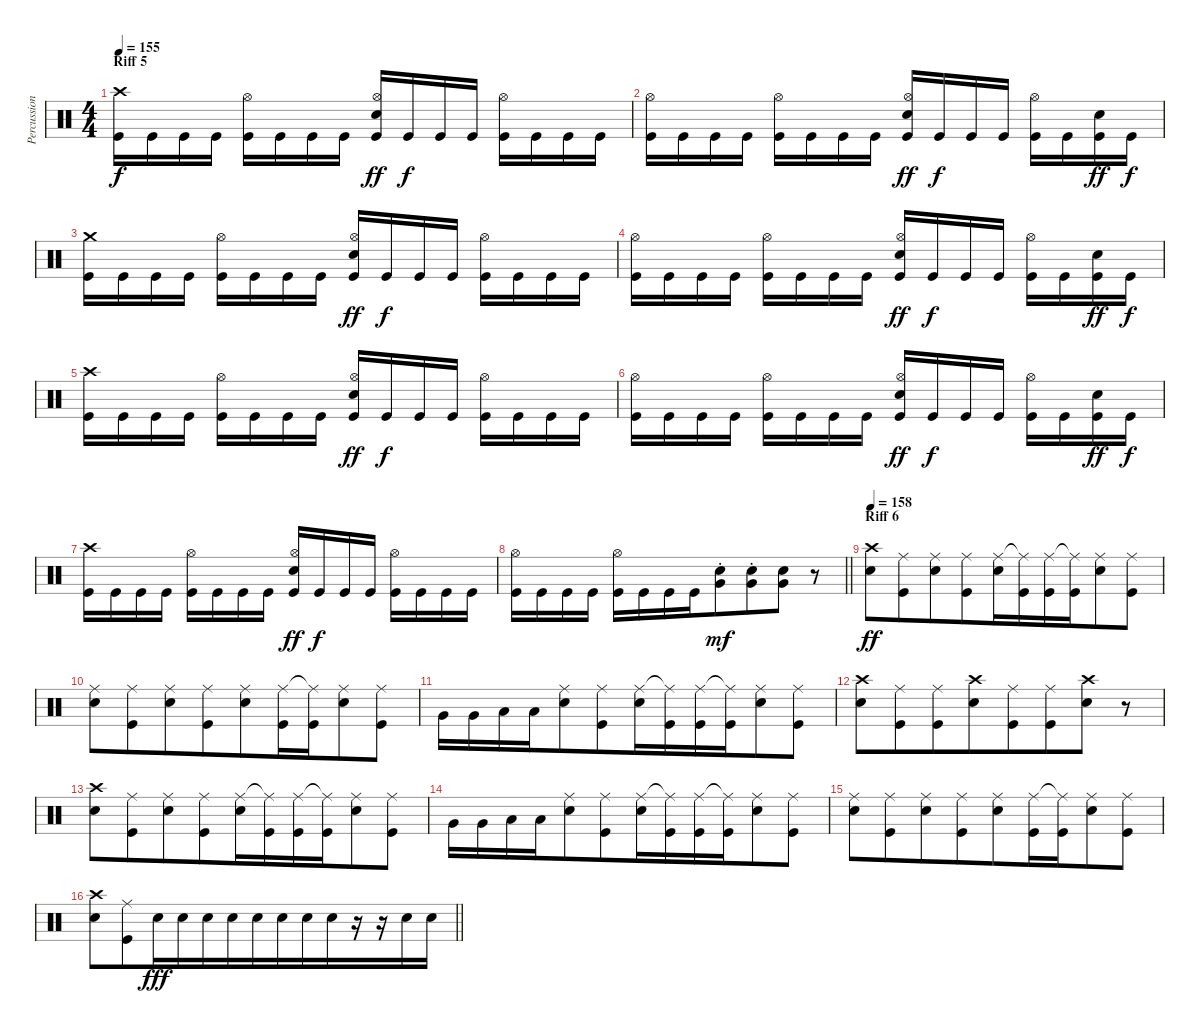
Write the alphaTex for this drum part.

\track ("Percussions" "Percussion") {instrument percussion}
\staff {score}
\articulation defaults
\ts (4 4)
\section ("" "Riff 5")
\tempo 155
\clef neutral
\ks c
("Crash high (hit)" "Kick (hit)").16{dy f} "Kick (hit)".16 "Kick (hit)".16 "Kick (hit)".16 ("Hi-Hat (open)" "Kick (hit)").16 "Kick (hit)".16 "Kick (hit)".16 "Kick (hit)".16 ("Hi-Hat (open)" "Electric Snare (hit)" "Kick (hit)").16{dy ff} "Kick (hit)".16{dy f} "Kick (hit)".16 "Kick (hit)".16 ("Hi-Hat (open)" "Kick (hit)").16 "Kick (hit)".16 "Kick (hit)".16 "Kick (hit)".16 |
("Hi-Hat (open)" "Kick (hit)").16 "Kick (hit)".16 "Kick (hit)".16 "Kick (hit)".16 ("Hi-Hat (open)" "Kick (hit)").16 "Kick (hit)".16 "Kick (hit)".16 "Kick (hit)".16 ("Hi-Hat (open)" "Electric Snare (hit)" "Kick (hit)").16{dy ff} "Kick (hit)".16{dy f} "Kick (hit)".16 "Kick (hit)".16 ("Hi-Hat (open)" "Kick (hit)").16 "Kick (hit)".16 ("Electric Snare (hit)" "Kick (hit)").16{dy ff} "Kick (hit)".16{dy f} |
("Crash medium (hit)" "Kick (hit)").16 "Kick (hit)".16 "Kick (hit)".16 "Kick (hit)".16 ("Hi-Hat (open)" "Kick (hit)").16 "Kick (hit)".16 "Kick (hit)".16 "Kick (hit)".16 ("Hi-Hat (open)" "Electric Snare (hit)" "Kick (hit)").16{dy ff} "Kick (hit)".16{dy f} "Kick (hit)".16 "Kick (hit)".16 ("Hi-Hat (open)" "Kick (hit)").16 "Kick (hit)".16 "Kick (hit)".16 "Kick (hit)".16 |
("Hi-Hat (open)" "Kick (hit)").16 "Kick (hit)".16 "Kick (hit)".16 "Kick (hit)".16 ("Hi-Hat (open)" "Kick (hit)").16 "Kick (hit)".16 "Kick (hit)".16 "Kick (hit)".16 ("Hi-Hat (open)" "Electric Snare (hit)" "Kick (hit)").16{dy ff} "Kick (hit)".16{dy f} "Kick (hit)".16 "Kick (hit)".16 ("Hi-Hat (open)" "Kick (hit)").16 "Kick (hit)".16 ("Electric Snare (hit)" "Kick (hit)").16{dy ff} "Kick (hit)".16{dy f} |
("Crash high (hit)" "Kick (hit)").16 "Kick (hit)".16 "Kick (hit)".16 "Kick (hit)".16 ("Hi-Hat (open)" "Kick (hit)").16 "Kick (hit)".16 "Kick (hit)".16 "Kick (hit)".16 ("Hi-Hat (open)" "Electric Snare (hit)" "Kick (hit)").16{dy ff} "Kick (hit)".16{dy f} "Kick (hit)".16 "Kick (hit)".16 ("Hi-Hat (open)" "Kick (hit)").16 "Kick (hit)".16 "Kick (hit)".16 "Kick (hit)".16 |
("Hi-Hat (open)" "Kick (hit)").16 "Kick (hit)".16 "Kick (hit)".16 "Kick (hit)".16 ("Hi-Hat (open)" "Kick (hit)").16 "Kick (hit)".16 "Kick (hit)".16 "Kick (hit)".16 ("Hi-Hat (open)" "Electric Snare (hit)" "Kick (hit)").16{dy ff} "Kick (hit)".16{dy f} "Kick (hit)".16 "Kick (hit)".16 ("Hi-Hat (open)" "Kick (hit)").16 "Kick (hit)".16 ("Electric Snare (hit)" "Kick (hit)").16{dy ff} "Kick (hit)".16{dy f} |
("Crash high (hit)" "Kick (hit)").16 "Kick (hit)".16 "Kick (hit)".16 "Kick (hit)".16 ("Hi-Hat (open)" "Kick (hit)").16 "Kick (hit)".16 "Kick (hit)".16 "Kick (hit)".16 ("Hi-Hat (open)" "Electric Snare (hit)" "Kick (hit)").16{dy ff} "Kick (hit)".16{dy f} "Kick (hit)".16 "Kick (hit)".16 ("Hi-Hat (open)" "Kick (hit)").16 "Kick (hit)".16 "Kick (hit)".16 "Kick (hit)".16 |
\barLineRight lightlight
("Hi-Hat (open)" "Kick (hit)").16 "Kick (hit)".16 "Kick (hit)".16 "Kick (hit)".16 ("Hi-Hat (open)" "Kick (hit)").16 "Kick (hit)".16 "Kick (hit)".16 "Kick (hit)".16{beam merge} ("Electric Snare (hit)"{st} "Very Low Tom (hit)").8{dy mf beam merge} ("Electric Snare (hit)"{st} "Very Low Tom (hit)").8{beam merge} ("Electric Snare (hit)" "Very Low Tom (hit)").8 r.8 |
\section ("" "Riff 6")
\tempo 158
("Crash high (hit)" "Electric Snare (hit)").8{dy ff beam merge} ("Ride (middle)" "Kick (hit)").8{beam merge} ("Ride (middle)" "Electric Snare (hit)").8{beam merge} ("Ride (middle)" "Kick (hit)").8{beam merge} ("Ride (middle)" "Electric Snare (hit)").16{beam merge} ("Ride (middle)"{t} "Kick (hit)").16{beam merge} ("Ride (middle)" "Kick (hit)").16{beam merge} ("Ride (middle)"{t} "Kick (hit)").16{beam merge} ("Ride (middle)" "Electric Snare (hit)").8{beam merge} ("Ride (middle)" "Kick (hit)").8 |
("Ride (middle)" "Electric Snare (hit)").8{beam merge} ("Ride (middle)" "Kick (hit)").8{beam merge} ("Ride (middle)" "Electric Snare (hit)").8{beam merge} ("Ride (middle)" "Kick (hit)").8{beam merge} ("Ride (middle)" "Electric Snare (hit)").8{beam merge} ("Ride (middle)" "Kick (hit)").16{beam merge} ("Ride (middle)"{t} "Kick (hit)").16{beam merge} ("Ride (middle)" "Electric Snare (hit)").8{beam merge} ("Ride (middle)" "Kick (hit)").8 |
"Very Low Tom (hit)".16 "Very Low Tom (hit)".16{beam merge} "Low Floor Tom (hit)".16{beam merge} "Low Floor Tom (hit)".16{beam merge} ("Ride (middle)" "Electric Snare (hit)").8{beam merge} ("Ride (middle)" "Kick (hit)").8{beam merge} ("Ride (middle)" "Electric Snare (hit)").16{beam merge} ("Ride (middle)"{t} "Kick (hit)").16{beam merge} ("Ride (middle)" "Kick (hit)").16{beam merge} ("Ride (middle)"{t} "Kick (hit)").16{beam merge} ("Ride (middle)" "Electric Snare (hit)").8{beam merge} ("Ride (middle)" "Kick (hit)").8 |
("Crash high (hit)" "Electric Snare (hit)").8{beam merge} ("Ride (middle)" "Kick (hit)").8{beam merge} ("Ride (middle)" "Kick (hit)").8{beam merge} ("Crash high (hit)" "Electric Snare (hit)").8{beam merge} ("Ride (middle)" "Kick (hit)").8{beam merge} ("Ride (middle)" "Kick (hit)").8{beam merge} ("Crash high (hit)" "Electric Snare (hit)").8{beam merge} r.8 |
("Crash high (hit)" "Electric Snare (hit)").8{beam merge} ("Ride (middle)" "Kick (hit)").8{beam merge} ("Ride (middle)" "Electric Snare (hit)").8{beam merge} ("Ride (middle)" "Kick (hit)").8{beam merge} ("Ride (middle)" "Electric Snare (hit)").16{beam merge} ("Ride (middle)"{t} "Kick (hit)").16{beam merge} ("Ride (middle)" "Kick (hit)").16{beam merge} ("Ride (middle)"{t} "Kick (hit)").16{beam merge} ("Ride (middle)" "Electric Snare (hit)").8{beam merge} ("Ride (middle)" "Kick (hit)").8 |
"Very Low Tom (hit)".16 "Very Low Tom (hit)".16{beam merge} "Low Floor Tom (hit)".16{beam merge} "Low Floor Tom (hit)".16{beam merge} ("Ride (middle)" "Electric Snare (hit)").8{beam merge} ("Ride (middle)" "Kick (hit)").8{beam merge} ("Ride (middle)" "Electric Snare (hit)").16{beam merge} ("Ride (middle)"{t} "Kick (hit)").16{beam merge} ("Ride (middle)" "Kick (hit)").16{beam merge} ("Ride (middle)"{t} "Kick (hit)").16{beam merge} ("Ride (middle)" "Electric Snare (hit)").8{beam merge} ("Ride (middle)" "Kick (hit)").8 |
("Ride (middle)" "Electric Snare (hit)").8{beam merge} ("Ride (middle)" "Kick (hit)").8{beam merge} ("Ride (middle)" "Electric Snare (hit)").8{beam merge} ("Ride (middle)" "Kick (hit)").8{beam merge} ("Ride (middle)" "Electric Snare (hit)").8{beam merge} ("Ride (middle)" "Kick (hit)").16{beam merge} ("Ride (middle)"{t} "Kick (hit)").16{beam merge} ("Ride (middle)" "Electric Snare (hit)").8{beam merge} ("Ride (middle)" "Kick (hit)").8 |
\barLineRight lightlight
("Crash high (hit)" "Electric Snare (hit)").8{beam merge} ("Ride (middle)" "Kick (hit)").8{beam merge} "Electric Snare (hit)".16{dy fff beam merge} "Electric Snare (hit)".16{beam merge} "Electric Snare (hit)".16{beam merge} "Electric Snare (hit)".16{beam merge} "Electric Snare (hit)".16{beam merge} "Electric Snare (hit)".16{beam merge} "Electric Snare (hit)".16{beam merge} "Electric Snare (hit)".16{beam merge} r.16{beam merge} r.16{beam merge} "Electric Snare (hit)".16{beam merge} "Electric Snare (hit)".16
